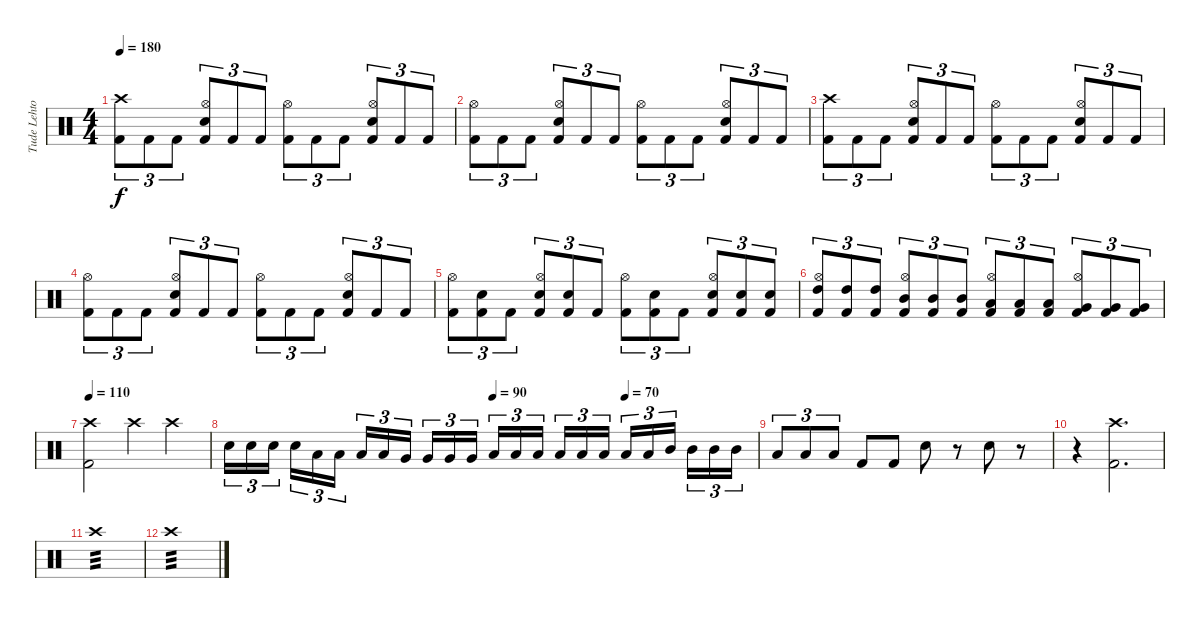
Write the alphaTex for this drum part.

\track ("Tude Lehtonen" "Tude Lehto") {instrument percussion}
\staff {score}
\articulation defaults
\ts (4 4)
\tempo 180
\clef neutral
\ks c
("Crash high (hit)" "Kick (hit) 2").8{tu (3 2) dy f} "Kick (hit) 2".8{tu (3 2)} "Kick (hit) 2".8{tu (3 2)} ("Hi-Hat (open)" "Snare (hit) 2" "Kick (hit) 2").8{tu (3 2)} "Kick (hit) 2".8{tu (3 2)} "Kick (hit) 2".8{tu (3 2)} ("Hi-Hat (open)" "Kick (hit) 2").8{tu (3 2)} "Kick (hit) 2".8{tu (3 2)} "Kick (hit) 2".8{tu (3 2)} ("Hi-Hat (open)" "Snare (hit) 2" "Kick (hit) 2").8{tu (3 2)} "Kick (hit) 2".8{tu (3 2)} "Kick (hit) 2".8{tu (3 2)} |
("Hi-Hat (open)" "Kick (hit) 2").8{tu (3 2)} "Kick (hit) 2".8{tu (3 2)} "Kick (hit) 2".8{tu (3 2)} ("Hi-Hat (open)" "Snare (hit) 2" "Kick (hit) 2").8{tu (3 2)} "Kick (hit) 2".8{tu (3 2)} "Kick (hit) 2".8{tu (3 2)} ("Hi-Hat (open)" "Kick (hit) 2").8{tu (3 2)} "Kick (hit) 2".8{tu (3 2)} "Kick (hit) 2".8{tu (3 2)} ("Hi-Hat (open)" "Snare (hit) 2" "Kick (hit) 2").8{tu (3 2)} "Kick (hit) 2".8{tu (3 2)} "Kick (hit) 2".8{tu (3 2)} |
("Crash high (hit)" "Kick (hit) 2").8{tu (3 2)} "Kick (hit) 2".8{tu (3 2)} "Kick (hit) 2".8{tu (3 2)} ("Hi-Hat (open)" "Snare (hit) 2" "Kick (hit) 2").8{tu (3 2)} "Kick (hit) 2".8{tu (3 2)} "Kick (hit) 2".8{tu (3 2)} ("Hi-Hat (open)" "Kick (hit) 2").8{tu (3 2)} "Kick (hit) 2".8{tu (3 2)} "Kick (hit) 2".8{tu (3 2)} ("Hi-Hat (open)" "Snare (hit) 2" "Kick (hit) 2").8{tu (3 2)} "Kick (hit) 2".8{tu (3 2)} "Kick (hit) 2".8{tu (3 2)} |
("Hi-Hat (open)" "Kick (hit) 2").8{tu (3 2)} "Kick (hit) 2".8{tu (3 2)} "Kick (hit) 2".8{tu (3 2)} ("Hi-Hat (open)" "Snare (hit) 2" "Kick (hit) 2").8{tu (3 2)} "Kick (hit) 2".8{tu (3 2)} "Kick (hit) 2".8{tu (3 2)} ("Hi-Hat (open)" "Kick (hit) 2").8{tu (3 2)} "Kick (hit) 2".8{tu (3 2)} "Kick (hit) 2".8{tu (3 2)} ("Hi-Hat (open)" "Snare (hit) 2" "Kick (hit) 2").8{tu (3 2)} "Kick (hit) 2".8{tu (3 2)} "Kick (hit) 2".8{tu (3 2)} |
("Hi-Hat (open)" "Kick (hit) 2").8{tu (3 2)} ("Snare (hit) 2" "Kick (hit) 2").8{tu (3 2)} "Kick (hit) 2".8{tu (3 2)} ("Hi-Hat (open)" "Snare (hit) 2" "Kick (hit) 2").8{tu (3 2)} ("Snare (hit) 2" "Kick (hit) 2").8{tu (3 2)} "Kick (hit) 2".8{tu (3 2)} ("Hi-Hat (open)" "Kick (hit) 2").8{tu (3 2)} ("Snare (hit) 2" "Kick (hit) 2").8{tu (3 2)} "Kick (hit) 2".8{tu (3 2)} ("Hi-Hat (open)" "Snare (hit) 2" "Kick (hit) 2").8{tu (3 2)} ("Snare (hit) 2" "Kick (hit) 2").8{tu (3 2)} ("Snare (hit) 2" "Kick (hit) 2").8{tu (3 2)} |
("Hi-Hat (open)" "High Tom (hit)" "Kick (hit) 2").8{tu (3 2)} ("High Tom (hit)" "Kick (hit) 2").8{tu (3 2)} ("High Tom (hit)" "Kick (hit) 2").8{tu (3 2)} ("Hi-Hat (open)" "Mid Tom (hit)" "Kick (hit) 2").8{tu (3 2)} ("Mid Tom (hit)" "Kick (hit) 2").8{tu (3 2)} ("Mid Tom (hit)" "Kick (hit) 2").8{tu (3 2)} ("Hi-Hat (open)" "Low Tom (hit)" "Kick (hit) 2").8{tu (3 2)} ("Low Tom (hit)" "Kick (hit) 2").8{tu (3 2)} ("Low Tom (hit)" "Kick (hit) 2").8{tu (3 2)} ("Hi-Hat (open)" "Very Low Tom (hit)" "Kick (hit) 2").8{tu (3 2)} ("Very Low Tom (hit)" "Kick (hit) 2").8{tu (3 2)} ("Very Low Tom (hit)" "Kick (hit) 2").8{tu (3 2)} |
\tempo 110
("Crash high (hit)" "Kick (hit) 2").2 "Crash high (hit)".4 "Crash high (hit)".4 |
\tempo (90 0.5)
\tempo (70 0.75)
"Snare (hit) 2".16{tu (3 2)} "Snare (hit) 2".16{tu (3 2)} "Snare (hit) 2".16{tu (3 2) beam splitsecondary} "Snare (hit) 2".16{tu (3 2)} "Low Tom (hit)".16{tu (3 2)} "Low Tom (hit)".16{tu (3 2)} "Low Tom (hit)".16{tu (3 2)} "Low Tom (hit)".16{tu (3 2)} "Very Low Tom (hit)".16{tu (3 2) beam splitsecondary} "Very Low Tom (hit)".16{tu (3 2)} "Very Low Tom (hit)".16{tu (3 2)} "Very Low Tom (hit)".16{tu (3 2)} "Low Floor Tom (hit)".16{tu (3 2)} "Low Floor Tom (hit)".16{tu (3 2)} "Low Floor Tom (hit)".16{tu (3 2) beam splitsecondary} "Low Floor Tom (hit)".16{tu (3 2)} "Low Tom (hit)".16{tu (3 2)} "Low Tom (hit)".16{tu (3 2)} "Low Tom (hit)".16{tu (3 2)} "Low Tom (hit)".16{tu (3 2)} "Mid Tom (hit)".16{tu (3 2) beam splitsecondary} "Mid Tom (hit)".16{tu (3 2)} "Mid Tom (hit)".16{tu (3 2)} "Mid Tom (hit)".16{tu (3 2)} |
"Low Tom (hit)".8{tu (3 2)} "Low Tom (hit)".8{tu (3 2)} "Low Tom (hit)".8{tu (3 2)} "Kick (hit) 2".8 "Kick (hit) 2".8 "Snare (hit) 2".8 r.8 "Snare (hit) 2".8 r.8 |
r.4 ("Crash high (hit)" "Kick (hit) 2").2{d} |
"Crash high (hit)".1{tp 3 volume 6} |
"Crash high (hit)".1{tp 3 volume 3}
